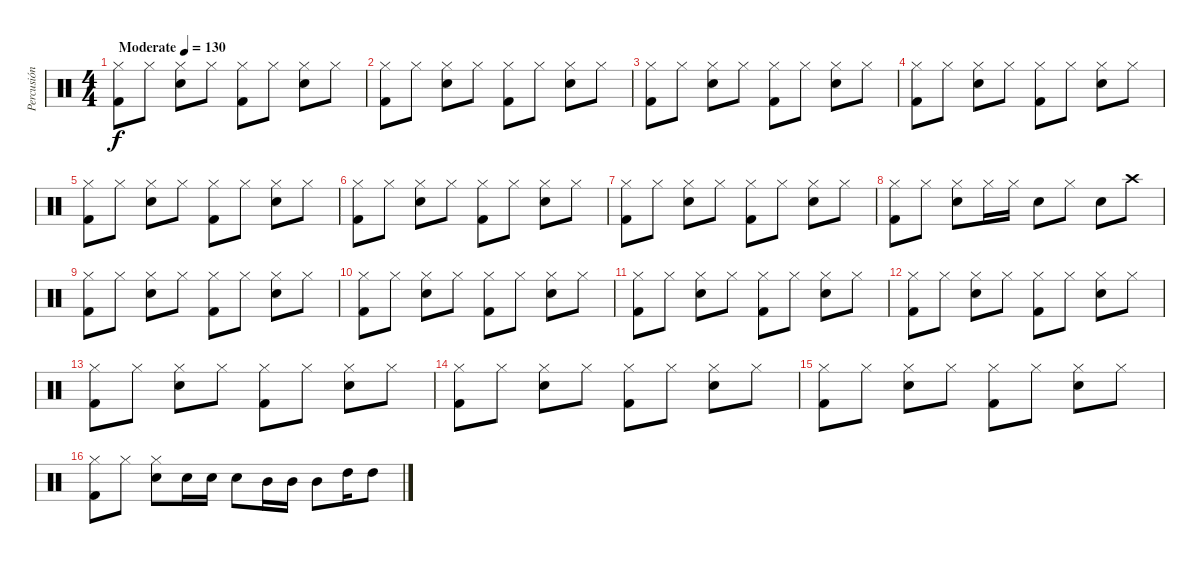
\track ("Percusión" "Percusión") {instrument percussion}
\staff {score}
\articulation defaults
\ts (4 4)
\tempo (130 "Moderate")
\clef neutral
\ks c
("Hi-Hat (closed)" "Kick (hit) 2").8{dy f} "Hi-Hat (closed)".8 ("Hi-Hat (closed)" "Snare (hit) 2").8 "Hi-Hat (closed)".8 ("Hi-Hat (closed)" "Kick (hit) 2").8 "Hi-Hat (closed)".8 ("Hi-Hat (closed)" "Snare (hit) 2").8 "Hi-Hat (closed)".8 |
("Hi-Hat (closed)" "Kick (hit) 2").8 "Hi-Hat (closed)".8 ("Hi-Hat (closed)" "Snare (hit) 2").8 "Hi-Hat (closed)".8 ("Hi-Hat (closed)" "Kick (hit) 2").8 "Hi-Hat (closed)".8 ("Hi-Hat (closed)" "Snare (hit) 2").8 "Hi-Hat (closed)".8 |
("Hi-Hat (closed)" "Kick (hit) 2").8 "Hi-Hat (closed)".8 ("Hi-Hat (closed)" "Snare (hit) 2").8 "Hi-Hat (closed)".8 ("Hi-Hat (closed)" "Kick (hit) 2").8 "Hi-Hat (closed)".8 ("Hi-Hat (closed)" "Snare (hit) 2").8 "Hi-Hat (closed)".8 |
("Hi-Hat (closed)" "Kick (hit) 2").8 "Hi-Hat (closed)".8 ("Hi-Hat (closed)" "Snare (hit) 2").8 "Hi-Hat (closed)".8 ("Hi-Hat (closed)" "Kick (hit) 2").8 "Hi-Hat (closed)".8 ("Hi-Hat (closed)" "Snare (hit) 2").8 "Hi-Hat (closed)".8 |
("Hi-Hat (closed)" "Kick (hit) 2").8 "Hi-Hat (closed)".8 ("Hi-Hat (closed)" "Snare (hit) 2").8 "Hi-Hat (closed)".8 ("Hi-Hat (closed)" "Kick (hit) 2").8 "Hi-Hat (closed)".8 ("Hi-Hat (closed)" "Snare (hit) 2").8 "Hi-Hat (closed)".8 |
("Hi-Hat (closed)" "Kick (hit) 2").8 "Hi-Hat (closed)".8 ("Hi-Hat (closed)" "Snare (hit) 2").8 "Hi-Hat (closed)".8 ("Hi-Hat (closed)" "Kick (hit) 2").8 "Hi-Hat (closed)".8 ("Hi-Hat (closed)" "Snare (hit) 2").8 "Hi-Hat (closed)".8 |
("Hi-Hat (closed)" "Kick (hit) 2").8 "Hi-Hat (closed)".8 ("Hi-Hat (closed)" "Snare (hit) 2").8 "Hi-Hat (closed)".8 ("Hi-Hat (closed)" "Kick (hit) 2").8 "Hi-Hat (closed)".8 ("Hi-Hat (closed)" "Snare (hit) 2").8 "Hi-Hat (closed)".8 |
("Hi-Hat (closed)" "Kick (hit) 2").8 "Hi-Hat (closed)".8 ("Hi-Hat (closed)" "Snare (hit) 2").8 "Hi-Hat (closed)".16 "Hi-Hat (closed)".16 "Snare (hit) 2".8 "Hi-Hat (closed)".8 "Snare (hit) 2".8 "Crash high (hit)".8 |
("Hi-Hat (closed)" "Kick (hit) 2").8 "Hi-Hat (closed)".8 ("Hi-Hat (closed)" "Snare (hit) 2").8 "Hi-Hat (closed)".8 ("Hi-Hat (closed)" "Kick (hit) 2").8 "Hi-Hat (closed)".8 ("Hi-Hat (closed)" "Snare (hit) 2").8 "Hi-Hat (closed)".8 |
("Hi-Hat (closed)" "Kick (hit) 2").8 "Hi-Hat (closed)".8 ("Hi-Hat (closed)" "Snare (hit) 2").8 "Hi-Hat (closed)".8 ("Hi-Hat (closed)" "Kick (hit) 2").8 "Hi-Hat (closed)".8 ("Hi-Hat (closed)" "Snare (hit) 2").8 "Hi-Hat (closed)".8 |
("Hi-Hat (closed)" "Kick (hit) 2").8 "Hi-Hat (closed)".8 ("Hi-Hat (closed)" "Snare (hit) 2").8 "Hi-Hat (closed)".8 ("Hi-Hat (closed)" "Kick (hit) 2").8 "Hi-Hat (closed)".8 ("Hi-Hat (closed)" "Snare (hit) 2").8 "Hi-Hat (closed)".8 |
("Hi-Hat (closed)" "Kick (hit) 2").8 "Hi-Hat (closed)".8 ("Hi-Hat (closed)" "Snare (hit) 2").8 "Hi-Hat (closed)".8 ("Hi-Hat (closed)" "Kick (hit) 2").8 "Hi-Hat (closed)".8 ("Hi-Hat (closed)" "Snare (hit) 2").8 "Hi-Hat (closed)".8 |
("Hi-Hat (closed)" "Kick (hit) 2").8 "Hi-Hat (closed)".8 ("Hi-Hat (closed)" "Snare (hit) 2").8 "Hi-Hat (closed)".8 ("Hi-Hat (closed)" "Kick (hit) 2").8 "Hi-Hat (closed)".8 ("Hi-Hat (closed)" "Snare (hit) 2").8 "Hi-Hat (closed)".8 |
("Hi-Hat (closed)" "Kick (hit) 2").8 "Hi-Hat (closed)".8 ("Hi-Hat (closed)" "Snare (hit) 2").8 "Hi-Hat (closed)".8 ("Hi-Hat (closed)" "Kick (hit) 2").8 "Hi-Hat (closed)".8 ("Hi-Hat (closed)" "Snare (hit) 2").8 "Hi-Hat (closed)".8 |
("Hi-Hat (closed)" "Kick (hit) 2").8 "Hi-Hat (closed)".8 ("Hi-Hat (closed)" "Snare (hit) 2").8 "Hi-Hat (closed)".8 ("Hi-Hat (closed)" "Kick (hit) 2").8 "Hi-Hat (closed)".8 ("Hi-Hat (closed)" "Snare (hit) 2").8 "Hi-Hat (closed)".8 |
("Hi-Hat (closed)" "Kick (hit) 2").8 "Hi-Hat (closed)".8 ("Hi-Hat (closed)" "Snare (hit) 2").8 "Snare (hit) 2".16 "Snare (hit) 2".16 "Snare (hit) 2".8 "Mid Tom (hit)".16 "Mid Tom (hit)".16 "Mid Tom (hit)".8 "High Tom (hit)".16 "High Tom (hit)".8
